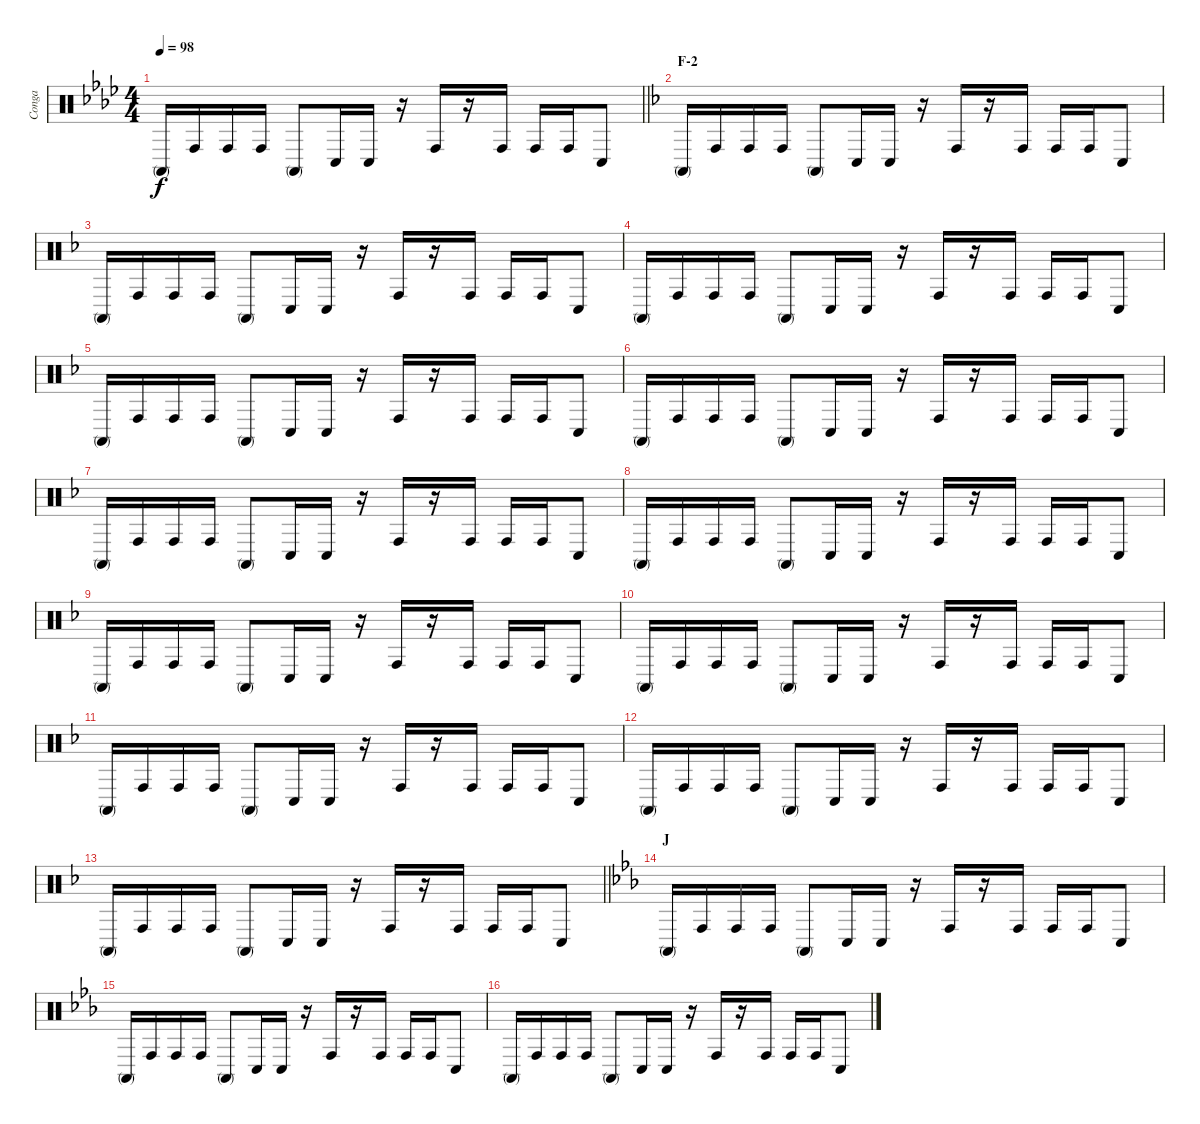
\track ("Conga" "Conga") {instrument percussion}
\staff {score}
\articulation defaults
\ts (4 4)
\tempo 98
\clef neutral
\barLineRight lightlight
\ks ab "Conga high (mute)".16{dy f} "Conga high (hit)".16 "Conga high (hit)".16 "Conga high (hit)".16 "Conga high (mute)".8 "Conga low (hit)".16 "Conga low (hit)".16
r.16 "Conga high (hit)".16 r.16 "Conga high (hit)".16 "Conga high (hit)".16 "Conga high (hit)".16 "Conga low (hit)".8 |
\section ("" "F-2")
\ks f "Conga high (mute)".16 "Conga high (hit)".16 "Conga high (hit)".16 "Conga high (hit)".16 "Conga high (mute)".8 "Conga low (hit)".16 "Conga low (hit)".16
r.16 "Conga high (hit)".16 r.16 "Conga high (hit)".16 "Conga high (hit)".16 "Conga high (hit)".16 "Conga low (hit)".8 |
"Conga high (mute)".16 "Conga high (hit)".16 "Conga high (hit)".16 "Conga high (hit)".16 "Conga high (mute)".8 "Conga low (hit)".16 "Conga low (hit)".16 r.16 "Conga high (hit)".16 r.16 "Conga high (hit)".16 "Conga high (hit)".16 "Conga high (hit)".16 "Conga low (hit)".8 |
"Conga high (mute)".16 "Conga high (hit)".16 "Conga high (hit)".16 "Conga high (hit)".16 "Conga high (mute)".8 "Conga low (hit)".16 "Conga low (hit)".16 r.16 "Conga high (hit)".16 r.16 "Conga high (hit)".16 "Conga high (hit)".16 "Conga high (hit)".16 "Conga low (hit)".8 |
"Conga high (mute)".16 "Conga high (hit)".16 "Conga high (hit)".16 "Conga high (hit)".16 "Conga high (mute)".8 "Conga low (hit)".16 "Conga low (hit)".16 r.16 "Conga high (hit)".16 r.16 "Conga high (hit)".16 "Conga high (hit)".16 "Conga high (hit)".16 "Conga low (hit)".8 |
"Conga high (mute)".16 "Conga high (hit)".16 "Conga high (hit)".16 "Conga high (hit)".16 "Conga high (mute)".8 "Conga low (hit)".16 "Conga low (hit)".16 r.16 "Conga high (hit)".16 r.16 "Conga high (hit)".16 "Conga high (hit)".16 "Conga high (hit)".16 "Conga low (hit)".8 |
"Conga high (mute)".16 "Conga high (hit)".16 "Conga high (hit)".16 "Conga high (hit)".16 "Conga high (mute)".8 "Conga low (hit)".16 "Conga low (hit)".16 r.16 "Conga high (hit)".16 r.16 "Conga high (hit)".16 "Conga high (hit)".16 "Conga high (hit)".16 "Conga low (hit)".8 |
"Conga high (mute)".16 "Conga high (hit)".16 "Conga high (hit)".16 "Conga high (hit)".16 "Conga high (mute)".8 "Conga low (hit)".16 "Conga low (hit)".16 r.16 "Conga high (hit)".16 r.16 "Conga high (hit)".16 "Conga high (hit)".16 "Conga high (hit)".16 "Conga low (hit)".8 |
"Conga high (mute)".16 "Conga high (hit)".16 "Conga high (hit)".16 "Conga high (hit)".16 "Conga high (mute)".8 "Conga low (hit)".16 "Conga low (hit)".16 r.16 "Conga high (hit)".16 r.16 "Conga high (hit)".16 "Conga high (hit)".16 "Conga high (hit)".16 "Conga low (hit)".8 |
"Conga high (mute)".16 "Conga high (hit)".16 "Conga high (hit)".16 "Conga high (hit)".16 "Conga high (mute)".8 "Conga low (hit)".16 "Conga low (hit)".16 r.16 "Conga high (hit)".16 r.16 "Conga high (hit)".16 "Conga high (hit)".16 "Conga high (hit)".16 "Conga low (hit)".8 |
"Conga high (mute)".16 "Conga high (hit)".16 "Conga high (hit)".16 "Conga high (hit)".16 "Conga high (mute)".8 "Conga low (hit)".16 "Conga low (hit)".16 r.16 "Conga high (hit)".16 r.16 "Conga high (hit)".16 "Conga high (hit)".16 "Conga high (hit)".16 "Conga low (hit)".8 |
"Conga high (mute)".16 "Conga high (hit)".16 "Conga high (hit)".16 "Conga high (hit)".16 "Conga high (mute)".8 "Conga low (hit)".16 "Conga low (hit)".16 r.16 "Conga high (hit)".16 r.16 "Conga high (hit)".16 "Conga high (hit)".16 "Conga high (hit)".16 "Conga low (hit)".8 |
\barLineRight lightlight "Conga high (mute)".16 "Conga high (hit)".16 "Conga high (hit)".16 "Conga high (hit)".16 "Conga high (mute)".8 "Conga low (hit)".16 "Conga low (hit)".16
r.16 "Conga high (hit)".16 r.16 "Conga high (hit)".16 "Conga high (hit)".16 "Conga high (hit)".16 "Conga low (hit)".8 |
\section ("" "J")
\ks eb "Conga high (mute)".16 "Conga high (hit)".16 "Conga high (hit)".16 "Conga high (hit)".16 "Conga high (mute)".8 "Conga low (hit)".16 "Conga low (hit)".16
r.16 "Conga high (hit)".16 r.16 "Conga high (hit)".16 "Conga high (hit)".16 "Conga high (hit)".16 "Conga low (hit)".8 |
"Conga high (mute)".16 "Conga high (hit)".16 "Conga high (hit)".16 "Conga high (hit)".16 "Conga high (mute)".8 "Conga low (hit)".16 "Conga low (hit)".16 r.16 "Conga high (hit)".16 r.16 "Conga high (hit)".16 "Conga high (hit)".16 "Conga high (hit)".16 "Conga low (hit)".8 |
"Conga high (mute)".16 "Conga high (hit)".16 "Conga high (hit)".16 "Conga high (hit)".16 "Conga high (mute)".8 "Conga low (hit)".16 "Conga low (hit)".16 r.16 "Conga high (hit)".16 r.16 "Conga high (hit)".16 "Conga high (hit)".16 "Conga high (hit)".16 "Conga low (hit)".8
